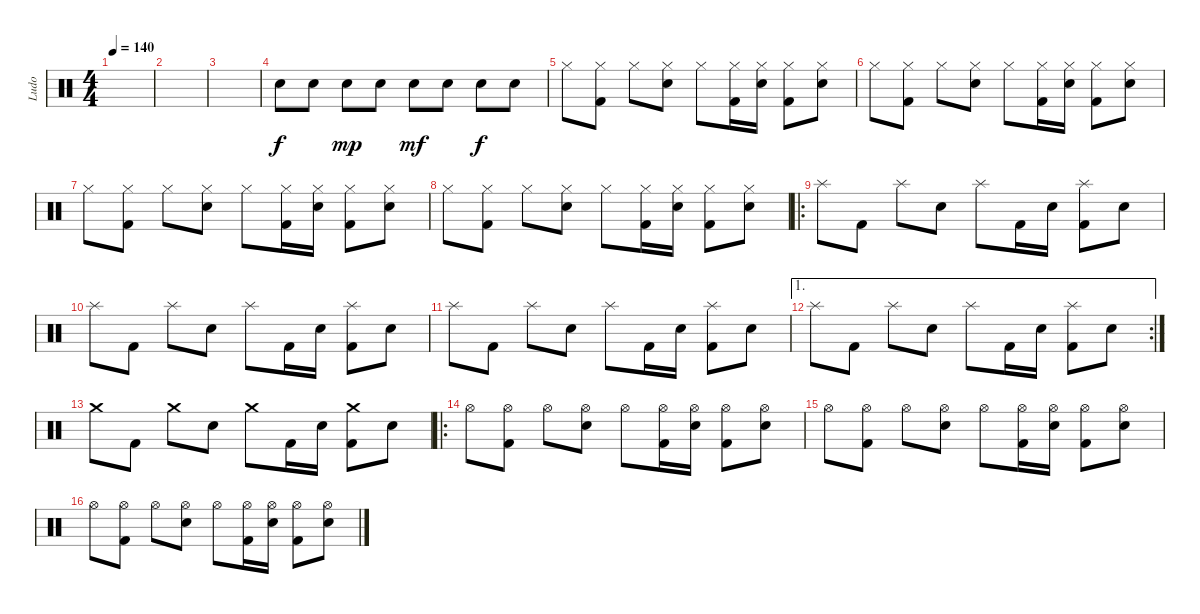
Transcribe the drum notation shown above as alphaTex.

\track ("Ludo" "Ludo") {instrument percussion}
\staff {score}
\articulation defaults
\ts (4 4)
\tempo 140
\clef neutral
\ks c
|
|
|
"Electric Snare (hit)".8 "Electric Snare (hit)".8 "Electric Snare (hit)".8{dy mp} "Electric Snare (hit)".8 "Electric Snare (hit)".8{dy mf} "Electric Snare (hit)".8 "Electric Snare (hit)".8{dy f} "Electric Snare (hit)".8 |
"Hi-Hat (closed)".8 ("Hi-Hat (closed)" "Kick (hit) 2").8 "Hi-Hat (closed)".8 ("Hi-Hat (closed)" "Electric Snare (hit)").8 "Hi-Hat (closed)".8 ("Hi-Hat (closed)" "Kick (hit) 2").16 ("Hi-Hat (closed)" "Electric Snare (hit)").16 ("Hi-Hat (closed)" "Kick (hit) 2").8 ("Hi-Hat (closed)" "Electric Snare (hit)").8 |
"Hi-Hat (closed)".8 ("Hi-Hat (closed)" "Kick (hit) 2").8 "Hi-Hat (closed)".8 ("Hi-Hat (closed)" "Electric Snare (hit)").8 "Hi-Hat (closed)".8 ("Hi-Hat (closed)" "Kick (hit) 2").16 ("Hi-Hat (closed)" "Electric Snare (hit)").16 ("Hi-Hat (closed)" "Kick (hit) 2").8 ("Hi-Hat (closed)" "Electric Snare (hit)").8 |
"Hi-Hat (closed)".8 ("Hi-Hat (closed)" "Kick (hit) 2").8 "Hi-Hat (closed)".8 ("Hi-Hat (closed)" "Electric Snare (hit)").8 "Hi-Hat (closed)".8 ("Hi-Hat (closed)" "Kick (hit) 2").16 ("Hi-Hat (closed)" "Electric Snare (hit)").16 ("Hi-Hat (closed)" "Kick (hit) 2").8 ("Hi-Hat (closed)" "Electric Snare (hit)").8 |
"Hi-Hat (closed)".8 ("Hi-Hat (closed)" "Kick (hit) 2").8 "Hi-Hat (closed)".8 ("Hi-Hat (closed)" "Electric Snare (hit)").8 "Hi-Hat (closed)".8 ("Hi-Hat (closed)" "Kick (hit) 2").16 ("Hi-Hat (closed)" "Electric Snare (hit)").16 ("Hi-Hat (closed)" "Kick (hit) 2").8 ("Hi-Hat (closed)" "Electric Snare (hit)").8 |
\ro "Splash (hit)".8 "Kick (hit) 2".8 "Splash (hit)".8 "Electric Snare (hit)".8 "Splash (hit)".8 "Kick (hit) 2".16 "Electric Snare (hit)".16
("Splash (hit)" "Kick (hit) 2").8 "Electric Snare (hit)".8 |
"Splash (hit)".8 "Kick (hit) 2".8 "Splash (hit)".8 "Electric Snare (hit)".8 "Splash (hit)".8 "Kick (hit) 2".16 "Electric Snare (hit)".16 ("Splash (hit)" "Kick (hit) 2").8 "Electric Snare (hit)".8 |
"Splash (hit)".8 "Kick (hit) 2".8 "Splash (hit)".8 "Electric Snare (hit)".8 "Splash (hit)".8 "Kick (hit) 2".16 "Electric Snare (hit)".16 ("Splash (hit)" "Kick (hit) 2").8 "Electric Snare (hit)".8 |
\ae 1
\rc 2 "Splash (hit)".8 "Kick (hit) 2".8 "Splash (hit)".8 "Electric Snare (hit)".8 "Splash (hit)".8 "Kick (hit) 2".16 "Electric Snare (hit)".16
("Splash (hit)" "Kick (hit) 2").8 "Electric Snare (hit)".8 |
"Crash medium (hit)".8 "Kick (hit) 2".8 "Crash medium (hit)".8 "Electric Snare (hit)".8 "Crash medium (hit)".8 "Kick (hit) 2".16 "Electric Snare (hit)".16 ("Crash medium (hit)" "Kick (hit) 2").8 "Electric Snare (hit)".8 |
\ro "Hi-Hat (open)".8
("Hi-Hat (open)" "Kick (hit) 2").8 "Hi-Hat (open)".8 ("Hi-Hat (open)" "Electric Snare (hit)").8 "Hi-Hat (open)".8 ("Hi-Hat (open)" "Kick (hit) 2").16 ("Hi-Hat (open)" "Electric Snare (hit)").16 ("Hi-Hat (open)" "Kick (hit) 2").8 ("Hi-Hat (open)" "Electric Snare (hit)").8 |
"Hi-Hat (open)".8 ("Hi-Hat (open)" "Kick (hit) 2").8 "Hi-Hat (open)".8 ("Hi-Hat (open)" "Electric Snare (hit)").8 "Hi-Hat (open)".8 ("Hi-Hat (open)" "Kick (hit) 2").16 ("Hi-Hat (open)" "Electric Snare (hit)").16 ("Hi-Hat (open)" "Kick (hit) 2").8 ("Hi-Hat (open)" "Electric Snare (hit)").8 |
"Hi-Hat (open)".8 ("Hi-Hat (open)" "Kick (hit) 2").8 "Hi-Hat (open)".8 ("Hi-Hat (open)" "Electric Snare (hit)").8 "Hi-Hat (open)".8 ("Hi-Hat (open)" "Kick (hit) 2").16 ("Hi-Hat (open)" "Electric Snare (hit)").16 ("Hi-Hat (open)" "Kick (hit) 2").8 ("Hi-Hat (open)" "Electric Snare (hit)").8
